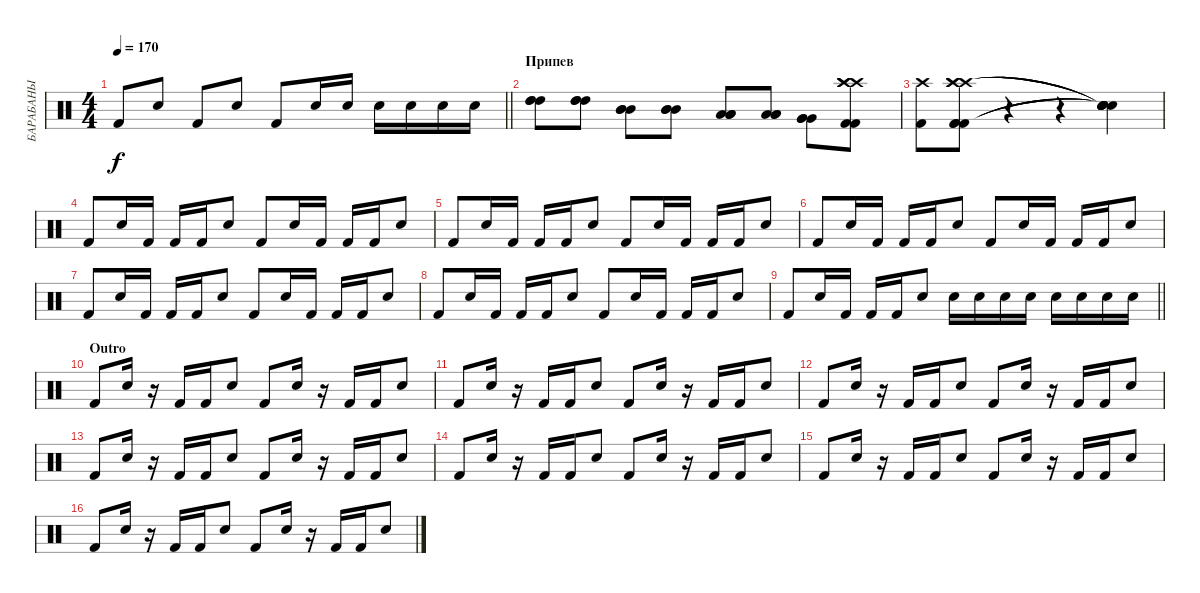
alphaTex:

\track ("БАРАБАНЫ" "БАРАБАНЫ") {instrument percussion}
\staff {score}
\articulation defaults
\ts (4 4)
\tempo 170
\clef neutral
\barLineRight lightlight
\ks c "Kick (hit) 2".8{dy f} "Electric Snare (hit)".8 "Kick (hit) 2".8 "Electric Snare (hit)".8 "Kick (hit) 2".8 "Electric Snare (hit)".16 "Electric Snare (hit)".16 "Electric Snare (hit)".16 "Electric Snare (hit)".16 "Electric Snare (hit)".16 "Electric Snare (hit)".16
|
\section ("" "Припев")
("High Tom (hit)" "High Tom (hit)" "High Tom (hit)").8 ("High Tom (hit)" "High Tom (hit)" "High Tom (hit)").8 ("Mid Tom (hit)" "Mid Tom (hit)" "Mid Tom (hit)").8 ("Mid Tom (hit)" "Mid Tom (hit)" "Mid Tom (hit)").8 ("Low Tom (hit)" "Low Tom (hit)" "Low Tom (hit)").8 ("Low Tom (hit)" "Low Tom (hit)" "Low Tom (hit)").8 ("Very Low Tom (hit)" "Very Low Tom (hit)" "Very Low Tom (hit)").8 ("Crash high (hit)" "Crash high (hit)" "Crash high (hit)" "Kick (hit) 2" "Kick (hit) 2").8 |
("Kick (hit) 2" "Crash high (hit)").8 ("Kick (hit) 2" "Crash high (hit)" "Kick (hit) 2" "Crash high (hit)" "Kick (hit) 2" "Crash high (hit)").8 r.4 r.4 ("Snare (hit)"{t} "Snare (hit)"{t} "Snare (hit)"{t} "Snare (hit)"{t} "Snare (hit)"{t} "Snare (hit)"{t}).4 |
"Kick (hit) 2".8 "Electric Snare (hit)".16 "Kick (hit) 2".16 "Kick (hit) 2".16 "Kick (hit) 2".16 "Electric Snare (hit)".8 "Kick (hit) 2".8 "Electric Snare (hit)".16 "Kick (hit) 2".16 "Kick (hit) 2".16 "Kick (hit) 2".16 "Electric Snare (hit)".8 |
"Kick (hit) 2".8 "Electric Snare (hit)".16 "Kick (hit) 2".16 "Kick (hit) 2".16 "Kick (hit) 2".16 "Electric Snare (hit)".8 "Kick (hit) 2".8 "Electric Snare (hit)".16 "Kick (hit) 2".16 "Kick (hit) 2".16 "Kick (hit) 2".16 "Electric Snare (hit)".8 |
"Kick (hit) 2".8 "Electric Snare (hit)".16 "Kick (hit) 2".16 "Kick (hit) 2".16 "Kick (hit) 2".16 "Electric Snare (hit)".8 "Kick (hit) 2".8 "Electric Snare (hit)".16 "Kick (hit) 2".16 "Kick (hit) 2".16 "Kick (hit) 2".16 "Electric Snare (hit)".8 |
"Kick (hit) 2".8 "Electric Snare (hit)".16 "Kick (hit) 2".16 "Kick (hit) 2".16 "Kick (hit) 2".16 "Electric Snare (hit)".8 "Kick (hit) 2".8 "Electric Snare (hit)".16 "Kick (hit) 2".16 "Kick (hit) 2".16 "Kick (hit) 2".16 "Electric Snare (hit)".8 |
"Kick (hit) 2".8 "Electric Snare (hit)".16 "Kick (hit) 2".16 "Kick (hit) 2".16 "Kick (hit) 2".16 "Electric Snare (hit)".8 "Kick (hit) 2".8 "Electric Snare (hit)".16 "Kick (hit) 2".16 "Kick (hit) 2".16 "Kick (hit) 2".16 "Electric Snare (hit)".8 |
\barLineRight lightlight "Kick (hit) 2".8 "Electric Snare (hit)".16 "Kick (hit) 2".16 "Kick (hit) 2".16 "Kick (hit) 2".16 "Electric Snare (hit)".8 "Electric Snare (hit)".16 "Electric Snare (hit)".16 "Electric Snare (hit)".16 "Electric Snare (hit)".16 "Electric Snare (hit)".16 "Electric Snare (hit)".16 "Electric Snare (hit)".16 "Electric Snare (hit)".16
|
\section ("" "Outro")
"Kick (hit) 2".8 "Electric Snare (hit)".16 r.16 "Kick (hit) 2".16 "Kick (hit) 2".16 "Electric Snare (hit)".8 "Kick (hit) 2".8 "Electric Snare (hit)".16 r.16 "Kick (hit) 2".16 "Kick (hit) 2".16 "Electric Snare (hit)".8 |
"Kick (hit) 2".8 "Electric Snare (hit)".16 r.16 "Kick (hit) 2".16 "Kick (hit) 2".16 "Electric Snare (hit)".8 "Kick (hit) 2".8 "Electric Snare (hit)".16 r.16 "Kick (hit) 2".16 "Kick (hit) 2".16 "Electric Snare (hit)".8 |
"Kick (hit) 2".8 "Electric Snare (hit)".16 r.16 "Kick (hit) 2".16 "Kick (hit) 2".16 "Electric Snare (hit)".8 "Kick (hit) 2".8 "Electric Snare (hit)".16 r.16 "Kick (hit) 2".16 "Kick (hit) 2".16 "Electric Snare (hit)".8 |
"Kick (hit) 2".8 "Electric Snare (hit)".16 r.16 "Kick (hit) 2".16 "Kick (hit) 2".16 "Electric Snare (hit)".8 "Kick (hit) 2".8 "Electric Snare (hit)".16 r.16 "Kick (hit) 2".16 "Kick (hit) 2".16 "Electric Snare (hit)".8 |
"Kick (hit) 2".8 "Electric Snare (hit)".16 r.16 "Kick (hit) 2".16 "Kick (hit) 2".16 "Electric Snare (hit)".8 "Kick (hit) 2".8 "Electric Snare (hit)".16 r.16 "Kick (hit) 2".16 "Kick (hit) 2".16 "Electric Snare (hit)".8 |
"Kick (hit) 2".8 "Electric Snare (hit)".16 r.16 "Kick (hit) 2".16 "Kick (hit) 2".16 "Electric Snare (hit)".8 "Kick (hit) 2".8 "Electric Snare (hit)".16 r.16 "Kick (hit) 2".16 "Kick (hit) 2".16 "Electric Snare (hit)".8 |
"Kick (hit) 2".8 "Electric Snare (hit)".16 r.16 "Kick (hit) 2".16 "Kick (hit) 2".16 "Electric Snare (hit)".8 "Kick (hit) 2".8 "Electric Snare (hit)".16 r.16 "Kick (hit) 2".16 "Kick (hit) 2".16 "Electric Snare (hit)".8
